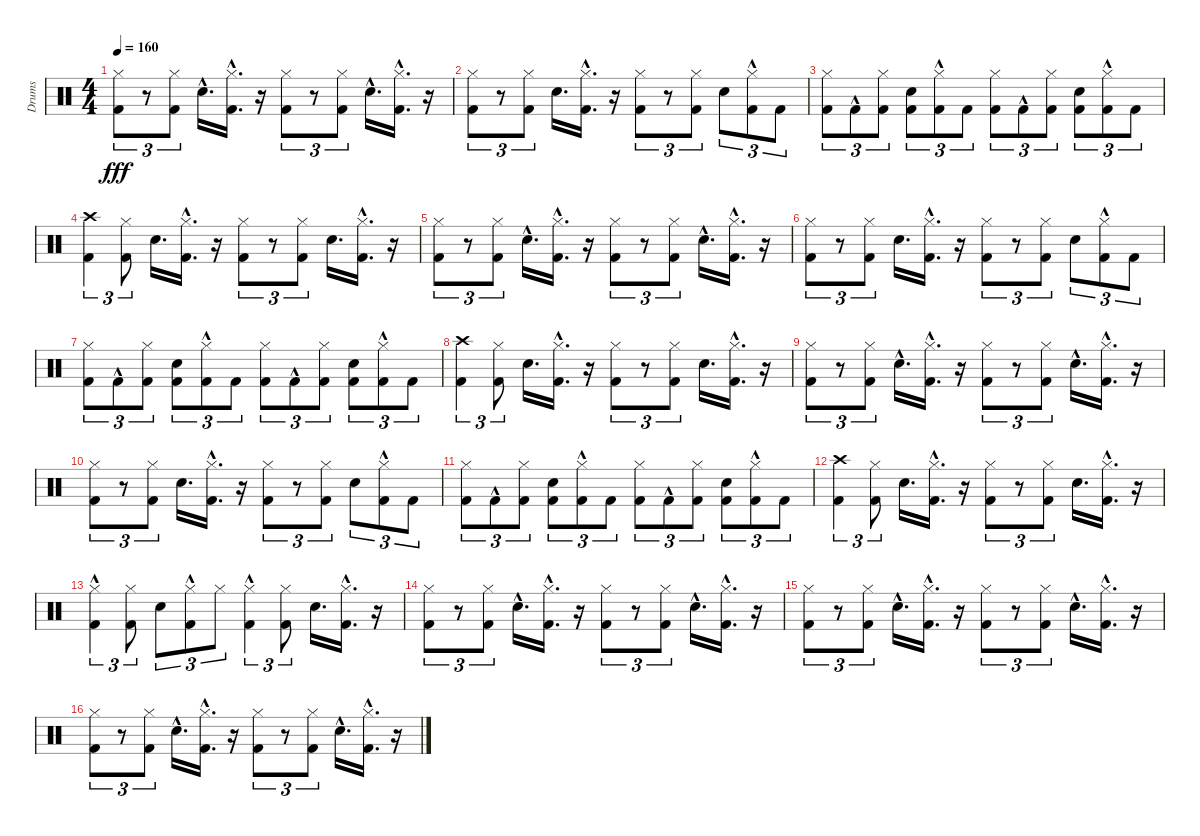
\track ("Drums" "Drums") {instrument percussion}
\staff {score}
\articulation defaults
\ts (4 4)
\tempo 160
\clef neutral
\ks c
("Kick (hit) 2" "Hi-Hat (closed)").8{tu (3 2) dy fff} r.8{tu (3 2)} ("Kick (hit) 2" "Hi-Hat (closed)").8{tu (3 2)} "Snare (hit) 2"{hac}.16{d} ("Kick (hit) 2"{hac} "Hi-Hat (closed)"{hac}).16{d} r.16 ("Kick (hit) 2" "Hi-Hat (closed)").8{tu (3 2)} r.8{tu (3 2)} ("Kick (hit) 2" "Hi-Hat (closed)").8{tu (3 2)} "Snare (hit) 2"{hac}.16{d} ("Kick (hit) 2"{hac} "Hi-Hat (closed)"{hac}).16{d} r.16 |
("Kick (hit) 2" "Hi-Hat (closed)").8{tu (3 2)} r.8{tu (3 2)} ("Kick (hit) 2" "Hi-Hat (closed)").8{tu (3 2)} "Snare (hit) 2".16{d} ("Kick (hit) 2"{hac} "Hi-Hat (closed)"{hac}).16{d} r.16 ("Kick (hit) 2" "Hi-Hat (closed)").8{tu (3 2)} r.8{tu (3 2)} ("Kick (hit) 2" "Hi-Hat (closed)").8{tu (3 2)} "Snare (hit) 2".8{tu (3 2)} ("Kick (hit) 2"{hac} "Hi-Hat (closed)"{hac}).8{tu (3 2)} "Kick (hit) 2".8{tu (3 2)} |
("Kick (hit) 2" "Hi-Hat (closed)").8{tu (3 2)} "Kick (hit) 2"{hac}.8{tu (3 2)} ("Kick (hit) 2" "Hi-Hat (closed)").8{tu (3 2)} ("Kick (hit) 2" "Snare (hit) 2").8{tu (3 2)} ("Kick (hit) 2"{hac} "Hi-Hat (closed)"{hac}).8{tu (3 2)} "Kick (hit) 2".8{tu (3 2)} ("Kick (hit) 2" "Hi-Hat (closed)").8{tu (3 2)} "Kick (hit) 2"{hac}.8{tu (3 2)} ("Kick (hit) 2" "Hi-Hat (closed)").8{tu (3 2)} ("Kick (hit) 2" "Snare (hit) 2").8{tu (3 2)} ("Kick (hit) 2"{hac} "Hi-Hat (closed)").8{tu (3 2)} "Kick (hit) 2".8{tu (3 2)} |
("Kick (hit) 2" "Crash high (hit)").4{tu (3 2)} ("Kick (hit) 2" "Hi-Hat (closed)").8{tu (3 2)} "Snare (hit) 2".16{d} ("Kick (hit) 2"{hac} "Hi-Hat (closed)"{hac}).16{d} r.16 ("Kick (hit) 2" "Hi-Hat (closed)").8{tu (3 2)} r.8{tu (3 2)} ("Kick (hit) 2" "Hi-Hat (closed)").8{tu (3 2)} "Snare (hit) 2".16{d} ("Kick (hit) 2"{hac} "Hi-Hat (closed)"{hac}).16{d} r.16 |
("Kick (hit) 2" "Hi-Hat (closed)").8{tu (3 2)} r.8{tu (3 2)} ("Kick (hit) 2" "Hi-Hat (closed)").8{tu (3 2)} "Snare (hit) 2"{hac}.16{d} ("Kick (hit) 2"{hac} "Hi-Hat (closed)"{hac}).16{d} r.16 ("Kick (hit) 2" "Hi-Hat (closed)").8{tu (3 2)} r.8{tu (3 2)} ("Kick (hit) 2" "Hi-Hat (closed)").8{tu (3 2)} "Snare (hit) 2"{hac}.16{d} ("Kick (hit) 2"{hac} "Hi-Hat (closed)"{hac}).16{d} r.16 |
("Kick (hit) 2" "Hi-Hat (closed)").8{tu (3 2)} r.8{tu (3 2)} ("Kick (hit) 2" "Hi-Hat (closed)").8{tu (3 2)} "Snare (hit) 2".16{d} ("Kick (hit) 2"{hac} "Hi-Hat (closed)"{hac}).16{d} r.16 ("Kick (hit) 2" "Hi-Hat (closed)").8{tu (3 2)} r.8{tu (3 2)} ("Kick (hit) 2" "Hi-Hat (closed)").8{tu (3 2)} "Snare (hit) 2".8{tu (3 2)} ("Kick (hit) 2"{hac} "Hi-Hat (closed)"{hac}).8{tu (3 2)} "Kick (hit) 2".8{tu (3 2)} |
("Kick (hit) 2" "Hi-Hat (closed)").8{tu (3 2)} "Kick (hit) 2"{hac}.8{tu (3 2)} ("Kick (hit) 2" "Hi-Hat (closed)").8{tu (3 2)} ("Kick (hit) 2" "Snare (hit) 2").8{tu (3 2)} ("Kick (hit) 2"{hac} "Hi-Hat (closed)"{hac}).8{tu (3 2)} "Kick (hit) 2".8{tu (3 2)} ("Kick (hit) 2" "Hi-Hat (closed)").8{tu (3 2)} "Kick (hit) 2"{hac}.8{tu (3 2)} ("Kick (hit) 2" "Hi-Hat (closed)").8{tu (3 2)} ("Kick (hit) 2" "Snare (hit) 2").8{tu (3 2)} ("Kick (hit) 2"{hac} "Hi-Hat (closed)").8{tu (3 2)} "Kick (hit) 2".8{tu (3 2)} |
("Kick (hit) 2" "Crash high (hit)").4{tu (3 2)} ("Kick (hit) 2" "Hi-Hat (closed)").8{tu (3 2)} "Snare (hit) 2".16{d} ("Kick (hit) 2"{hac} "Hi-Hat (closed)"{hac}).16{d} r.16 ("Kick (hit) 2" "Hi-Hat (closed)").8{tu (3 2)} r.8{tu (3 2)} ("Kick (hit) 2" "Hi-Hat (closed)").8{tu (3 2)} "Snare (hit) 2".16{d} ("Kick (hit) 2"{hac} "Hi-Hat (closed)"{hac}).16{d} r.16 |
("Kick (hit) 2" "Hi-Hat (closed)").8{tu (3 2)} r.8{tu (3 2)} ("Kick (hit) 2" "Hi-Hat (closed)").8{tu (3 2)} "Snare (hit) 2"{hac}.16{d} ("Kick (hit) 2"{hac} "Hi-Hat (closed)"{hac}).16{d} r.16 ("Kick (hit) 2" "Hi-Hat (closed)").8{tu (3 2)} r.8{tu (3 2)} ("Kick (hit) 2" "Hi-Hat (closed)").8{tu (3 2)} "Snare (hit) 2"{hac}.16{d} ("Kick (hit) 2"{hac} "Hi-Hat (closed)"{hac}).16{d} r.16 |
("Kick (hit) 2" "Hi-Hat (closed)").8{tu (3 2)} r.8{tu (3 2)} ("Kick (hit) 2" "Hi-Hat (closed)").8{tu (3 2)} "Snare (hit) 2".16{d} ("Kick (hit) 2"{hac} "Hi-Hat (closed)"{hac}).16{d} r.16 ("Kick (hit) 2" "Hi-Hat (closed)").8{tu (3 2)} r.8{tu (3 2)} ("Kick (hit) 2" "Hi-Hat (closed)").8{tu (3 2)} "Snare (hit) 2".8{tu (3 2)} ("Kick (hit) 2"{hac} "Hi-Hat (closed)"{hac}).8{tu (3 2)} "Kick (hit) 2".8{tu (3 2)} |
("Kick (hit) 2" "Hi-Hat (closed)").8{tu (3 2)} "Kick (hit) 2"{hac}.8{tu (3 2)} ("Kick (hit) 2" "Hi-Hat (closed)").8{tu (3 2)} ("Kick (hit) 2" "Snare (hit) 2").8{tu (3 2)} ("Kick (hit) 2"{hac} "Hi-Hat (closed)"{hac}).8{tu (3 2)} "Kick (hit) 2".8{tu (3 2)} ("Kick (hit) 2" "Hi-Hat (closed)").8{tu (3 2)} "Kick (hit) 2"{hac}.8{tu (3 2)} ("Kick (hit) 2" "Hi-Hat (closed)").8{tu (3 2)} ("Kick (hit) 2" "Snare (hit) 2").8{tu (3 2)} ("Kick (hit) 2"{hac} "Hi-Hat (closed)").8{tu (3 2)} "Kick (hit) 2".8{tu (3 2)} |
("Kick (hit) 2" "Crash high (hit)").4{tu (3 2)} ("Kick (hit) 2" "Hi-Hat (closed)").8{tu (3 2)} "Snare (hit) 2".16{d} ("Kick (hit) 2"{hac} "Hi-Hat (closed)"{hac}).16{d} r.16 ("Kick (hit) 2" "Hi-Hat (closed)").8{tu (3 2)} r.8{tu (3 2)} ("Kick (hit) 2" "Hi-Hat (closed)").8{tu (3 2)} "Snare (hit) 2".16{d} ("Kick (hit) 2"{hac} "Hi-Hat (closed)"{hac}).16{d} r.16 |
("Kick (hit) 2"{hac} "Hi-Hat (closed)").4{tu (3 2)} ("Kick (hit) 2" "Hi-Hat (closed)").8{tu (3 2)} "Snare (hit) 2".8{tu (3 2)} ("Kick (hit) 2"{hac} "Hi-Hat (closed)"{hac}).8{tu (3 2)} "Hi-Hat (closed)".8{tu (3 2)} ("Kick (hit) 2"{hac} "Hi-Hat (closed)").4{tu (3 2)} ("Kick (hit) 2" "Hi-Hat (closed)").8{tu (3 2)} "Snare (hit) 2".16{d} ("Kick (hit) 2"{hac} "Hi-Hat (closed)"{hac}).16{d} r.16 |
("Kick (hit) 2" "Hi-Hat (closed)").8{tu (3 2)} r.8{tu (3 2)} ("Kick (hit) 2" "Hi-Hat (closed)").8{tu (3 2)} "Snare (hit) 2"{hac}.16{d} ("Kick (hit) 2"{hac} "Hi-Hat (closed)"{hac}).16{d} r.16 ("Kick (hit) 2" "Hi-Hat (closed)").8{tu (3 2)} r.8{tu (3 2)} ("Kick (hit) 2" "Hi-Hat (closed)").8{tu (3 2)} "Snare (hit) 2"{hac}.16{d} ("Kick (hit) 2"{hac} "Hi-Hat (closed)"{hac}).16{d} r.16 |
("Kick (hit) 2" "Hi-Hat (closed)").8{tu (3 2)} r.8{tu (3 2)} ("Kick (hit) 2" "Hi-Hat (closed)").8{tu (3 2)} "Snare (hit) 2"{hac}.16{d} ("Kick (hit) 2"{hac} "Hi-Hat (closed)"{hac}).16{d} r.16 ("Kick (hit) 2" "Hi-Hat (closed)").8{tu (3 2)} r.8{tu (3 2)} ("Kick (hit) 2" "Hi-Hat (closed)").8{tu (3 2)} "Snare (hit) 2"{hac}.16{d} ("Kick (hit) 2"{hac} "Hi-Hat (closed)"{hac}).16{d} r.16 |
("Kick (hit) 2" "Hi-Hat (closed)").8{tu (3 2)} r.8{tu (3 2)} ("Kick (hit) 2" "Hi-Hat (closed)").8{tu (3 2)} "Snare (hit) 2"{hac}.16{d} ("Kick (hit) 2"{hac} "Hi-Hat (closed)"{hac}).16{d} r.16 ("Kick (hit) 2" "Hi-Hat (closed)").8{tu (3 2)} r.8{tu (3 2)} ("Kick (hit) 2" "Hi-Hat (closed)").8{tu (3 2)} "Snare (hit) 2"{hac}.16{d} ("Kick (hit) 2"{hac} "Hi-Hat (closed)"{hac}).16{d} r.16
